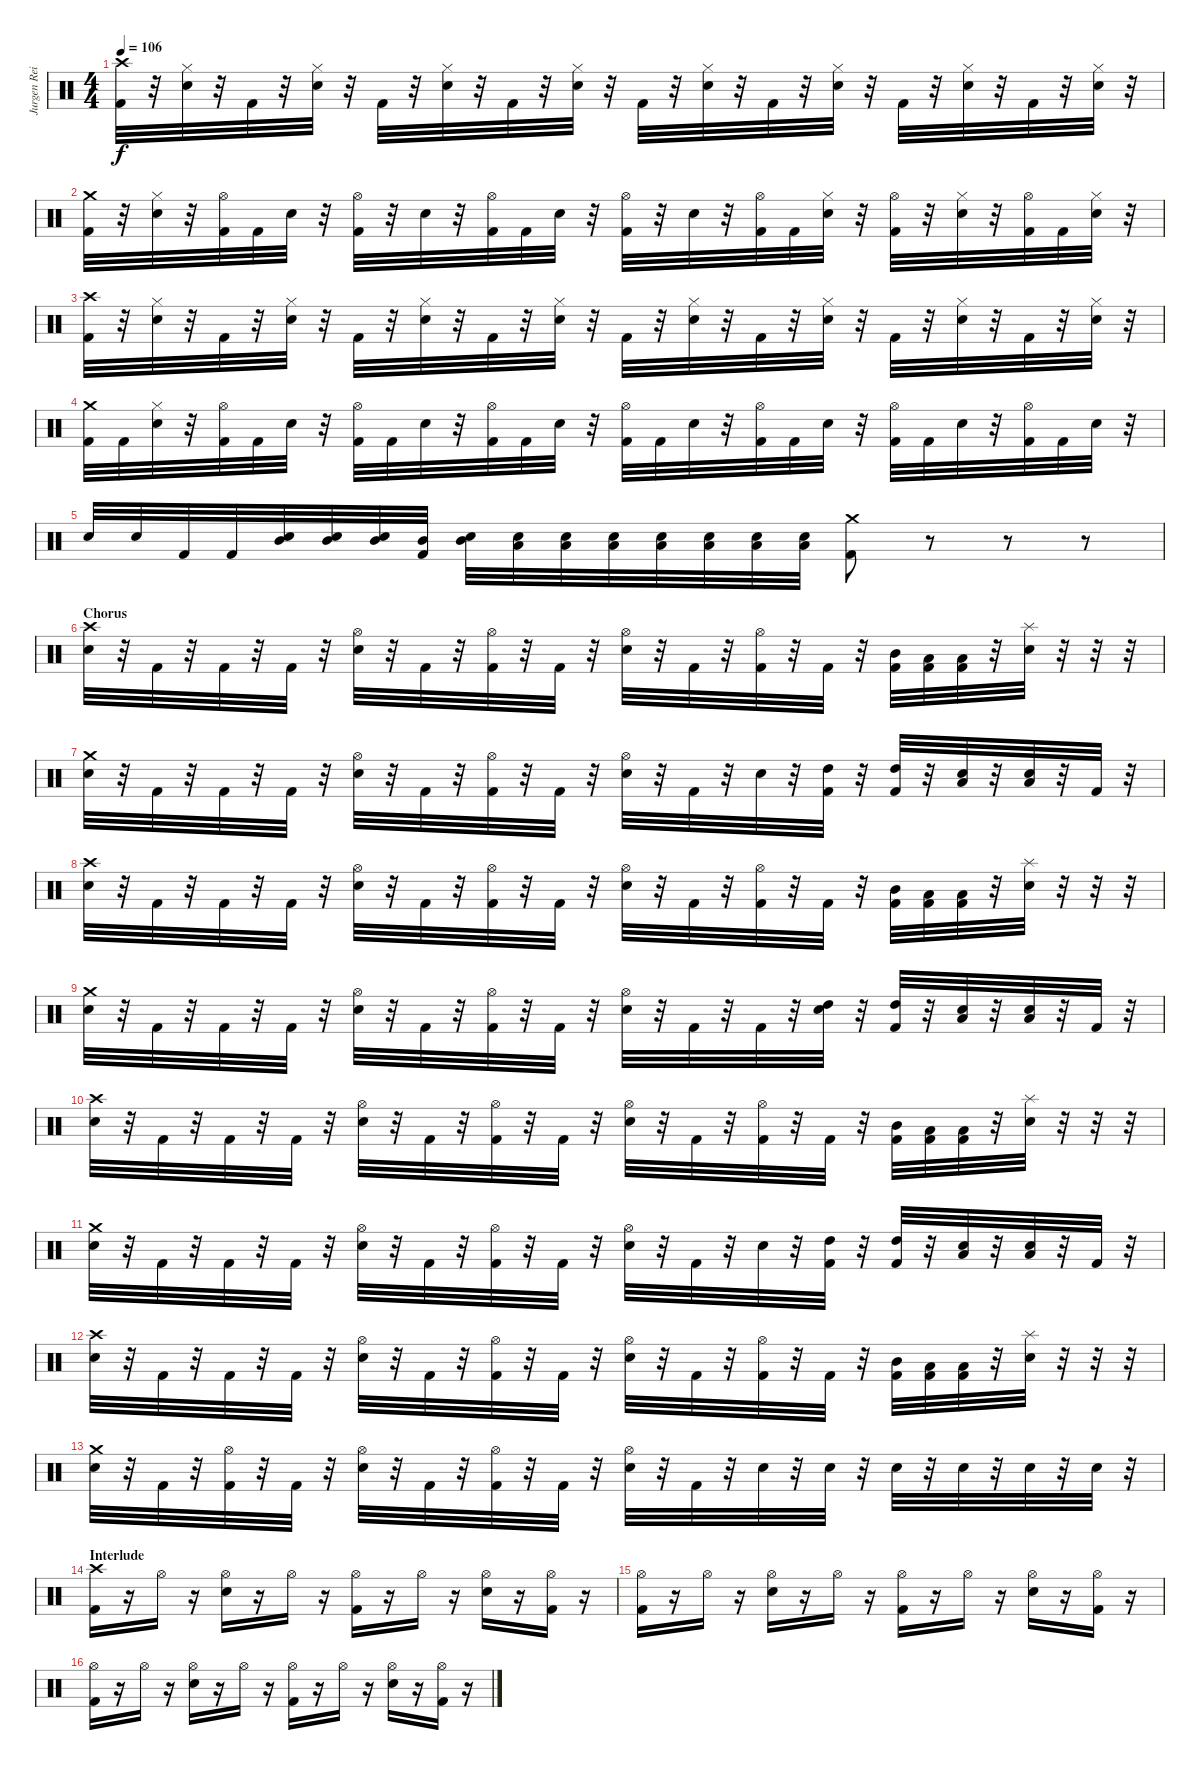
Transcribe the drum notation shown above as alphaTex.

\track ("Jurgen Reil" "Jurgen Rei") {instrument percussion}
\staff {score}
\articulation defaults
\ts (4 4)
\tempo 106
\clef neutral
\ks c
("Crash high (hit)" "Kick (hit) 2").32{dy f} r.32 ("Hi-Hat (closed)" "Snare (hit) 2").32 r.32 "Kick (hit) 2".32 r.32 ("Hi-Hat (closed)" "Snare (hit) 2").32 r.32 "Kick (hit) 2".32 r.32 ("Hi-Hat (closed)" "Snare (hit) 2").32 r.32 "Kick (hit) 2".32 r.32 ("Hi-Hat (closed)" "Snare (hit) 2").32 r.32 "Kick (hit) 2".32 r.32 ("Hi-Hat (closed)" "Snare (hit) 2").32 r.32 "Kick (hit) 2".32 r.32 ("Hi-Hat (closed)" "Snare (hit) 2").32 r.32 "Kick (hit) 2".32 r.32 ("Hi-Hat (closed)" "Snare (hit) 2").32 r.32 "Kick (hit) 2".32 r.32 ("Hi-Hat (closed)" "Snare (hit) 2").32 r.32 |
("Crash medium (hit)" "Kick (hit) 2").32 r.32 ("Hi-Hat (closed)" "Snare (hit) 2").32 r.32 ("Hi-Hat (open)" "Kick (hit) 2").32 "Kick (hit) 2".32 "Snare (hit) 2".32 r.32 ("Hi-Hat (open)" "Kick (hit) 2").32 r.32 "Snare (hit) 2".32 r.32 ("Hi-Hat (open)" "Kick (hit) 2").32 "Kick (hit) 2".32 "Snare (hit) 2".32 r.32 ("Hi-Hat (open)" "Kick (hit) 2").32 r.32 "Snare (hit) 2".32 r.32 ("Hi-Hat (open)" "Kick (hit) 2").32 "Kick (hit) 2".32 ("Hi-Hat (closed)" "Snare (hit) 2").32 r.32 ("Hi-Hat (open)" "Kick (hit) 2").32 r.32 ("Hi-Hat (closed)" "Snare (hit) 2").32 r.32 ("Hi-Hat (open)" "Kick (hit) 2").32 "Kick (hit) 2".32 ("Hi-Hat (closed)" "Snare (hit) 2").32 r.32 |
("Crash high (hit)" "Kick (hit) 2").32 r.32 ("Hi-Hat (closed)" "Snare (hit) 2").32 r.32 "Kick (hit) 2".32 r.32 ("Hi-Hat (closed)" "Snare (hit) 2").32 r.32 "Kick (hit) 2".32 r.32 ("Hi-Hat (closed)" "Snare (hit) 2").32 r.32 "Kick (hit) 2".32 r.32 ("Hi-Hat (closed)" "Snare (hit) 2").32 r.32 "Kick (hit) 2".32 r.32 ("Hi-Hat (closed)" "Snare (hit) 2").32 r.32 "Kick (hit) 2".32 r.32 ("Hi-Hat (closed)" "Snare (hit) 2").32 r.32 "Kick (hit) 2".32 r.32 ("Hi-Hat (closed)" "Snare (hit) 2").32 r.32 "Kick (hit) 2".32 r.32 ("Hi-Hat (closed)" "Snare (hit) 2").32 r.32 |
("Crash medium (hit)" "Kick (hit) 2").32 "Kick (hit) 2".32 ("Hi-Hat (closed)" "Snare (hit) 2").32 r.32 ("Hi-Hat (open)" "Kick (hit) 2").32 "Kick (hit) 2".32 "Snare (hit) 2".32 r.32 ("Hi-Hat (open)" "Kick (hit) 2").32 "Kick (hit) 2".32 "Snare (hit) 2".32 r.32 ("Hi-Hat (open)" "Kick (hit) 2").32 "Kick (hit) 2".32 "Snare (hit) 2".32 r.32 ("Hi-Hat (open)" "Kick (hit) 2").32 "Kick (hit) 2".32 "Snare (hit) 2".32 r.32 ("Hi-Hat (open)" "Kick (hit) 2").32 "Kick (hit) 2".32 "Snare (hit) 2".32 r.32 ("Hi-Hat (open)" "Kick (hit) 2").32 "Kick (hit) 2".32 "Snare (hit) 2".32 r.32 ("Hi-Hat (open)" "Kick (hit) 2").32 "Kick (hit) 2".32 "Snare (hit) 2".32 r.32 |
"Snare (hit) 2".32 "Snare (hit) 2".32 "Kick (hit) 2".32 "Kick (hit) 2".32 ("Mid Tom (hit)" "Snare (hit) 2").32 ("Mid Tom (hit)" "Snare (hit) 2").32 ("Mid Tom (hit)" "Snare (hit) 2").32 ("Mid Tom (hit)" "Kick (hit) 2").32 ("Mid Tom (hit)" "Snare (hit) 2").32 ("Low Tom (hit)" "Snare (hit) 2").32 ("Low Tom (hit)" "Snare (hit) 2").32 ("Low Tom (hit)" "Snare (hit) 2").32 ("Low Tom (hit)" "Snare (hit) 2").32 ("Low Tom (hit)" "Snare (hit) 2").32 ("Low Tom (hit)" "Snare (hit) 2").32 ("Low Tom (hit)" "Snare (hit) 2").32 ("Crash medium (hit)" "Kick (hit) 2").8 r.8 r.8 r.8 |
\section ("" "Chorus")
("Crash high (hit)" "Snare (hit) 2").32 r.32 "Kick (hit) 2".32 r.32 "Kick (hit) 2".32 r.32 "Kick (hit) 2".32 r.32 ("Hi-Hat (open)" "Snare (hit) 2").32 r.32 "Kick (hit) 2".32 r.32 ("Hi-Hat (open)" "Kick (hit) 2").32 r.32 "Kick (hit) 2".32 r.32 ("Hi-Hat (open)" "Snare (hit) 2").32 r.32 "Kick (hit) 2".32 r.32 ("Hi-Hat (open)" "Kick (hit) 2").32 r.32 "Kick (hit) 2".32 r.32 ("Mid Tom (hit)" "Kick (hit) 2").32 ("Low Tom (hit)" "Kick (hit) 2").32 ("Low Tom (hit)" "Kick (hit) 2").32 r.32 ("Splash (hit)" "Snare (hit) 2").32 r.32 r.32 r.32 |
("Crash medium (hit)" "Snare (hit) 2").32 r.32 "Kick (hit) 2".32 r.32 "Kick (hit) 2".32 r.32 "Kick (hit) 2".32 r.32 ("Hi-Hat (open)" "Snare (hit) 2").32 r.32 "Kick (hit) 2".32 r.32 ("Hi-Hat (open)" "Kick (hit) 2").32 r.32 "Kick (hit) 2".32 r.32 ("Hi-Hat (open)" "Snare (hit) 2").32 r.32 "Kick (hit) 2".32 r.32 "Snare (hit) 2".32 r.32 ("High Tom (hit)" "Kick (hit) 2").32 r.32 ("High Tom (hit)" "Kick (hit) 2").32 r.32 ("Low Tom (hit)" "Snare (hit) 2").32 r.32 ("Low Tom (hit)" "Snare (hit) 2").32 r.32 "Kick (hit) 2".32 r.32 |
("Crash high (hit)" "Snare (hit) 2").32 r.32 "Kick (hit) 2".32 r.32 "Kick (hit) 2".32 r.32 "Kick (hit) 2".32 r.32 ("Hi-Hat (open)" "Snare (hit) 2").32 r.32 "Kick (hit) 2".32 r.32 ("Hi-Hat (open)" "Kick (hit) 2").32 r.32 "Kick (hit) 2".32 r.32 ("Hi-Hat (open)" "Snare (hit) 2").32 r.32 "Kick (hit) 2".32 r.32 ("Hi-Hat (open)" "Kick (hit) 2").32 r.32 "Kick (hit) 2".32 r.32 ("Mid Tom (hit)" "Kick (hit) 2").32 ("Low Tom (hit)" "Kick (hit) 2").32 ("Low Tom (hit)" "Kick (hit) 2").32 r.32 ("Splash (hit)" "Snare (hit) 2").32 r.32 r.32 r.32 |
("Crash medium (hit)" "Snare (hit) 2").32 r.32 "Kick (hit) 2".32 r.32 "Kick (hit) 2".32 r.32 "Kick (hit) 2".32 r.32 ("Hi-Hat (open)" "Snare (hit) 2").32 r.32 "Kick (hit) 2".32 r.32 ("Hi-Hat (open)" "Kick (hit) 2").32 r.32 "Kick (hit) 2".32 r.32 ("Hi-Hat (open)" "Snare (hit) 2").32 r.32 "Kick (hit) 2".32 r.32 "Kick (hit) 2".32 r.32 ("High Tom (hit)" "Snare (hit) 2").32 r.32 ("High Tom (hit)" "Kick (hit) 2").32 r.32 ("Low Tom (hit)" "Snare (hit) 2").32 r.32 ("Low Tom (hit)" "Snare (hit) 2").32 r.32 "Kick (hit) 2".32 r.32 |
("Crash high (hit)" "Snare (hit) 2").32 r.32 "Kick (hit) 2".32 r.32 "Kick (hit) 2".32 r.32 "Kick (hit) 2".32 r.32 ("Hi-Hat (open)" "Snare (hit) 2").32 r.32 "Kick (hit) 2".32 r.32 ("Hi-Hat (open)" "Kick (hit) 2").32 r.32 "Kick (hit) 2".32 r.32 ("Hi-Hat (open)" "Snare (hit) 2").32 r.32 "Kick (hit) 2".32 r.32 ("Hi-Hat (open)" "Kick (hit) 2").32 r.32 "Kick (hit) 2".32 r.32 ("Mid Tom (hit)" "Kick (hit) 2").32 ("Low Tom (hit)" "Kick (hit) 2").32 ("Low Tom (hit)" "Kick (hit) 2").32 r.32 ("Splash (hit)" "Snare (hit) 2").32 r.32 r.32 r.32 |
("Crash medium (hit)" "Snare (hit) 2").32 r.32 "Kick (hit) 2".32 r.32 "Kick (hit) 2".32 r.32 "Kick (hit) 2".32 r.32 ("Hi-Hat (open)" "Snare (hit) 2").32 r.32 "Kick (hit) 2".32 r.32 ("Hi-Hat (open)" "Kick (hit) 2").32 r.32 "Kick (hit) 2".32 r.32 ("Hi-Hat (open)" "Snare (hit) 2").32 r.32 "Kick (hit) 2".32 r.32 "Snare (hit) 2".32 r.32 ("High Tom (hit)" "Kick (hit) 2").32 r.32 ("High Tom (hit)" "Kick (hit) 2").32 r.32 ("Low Tom (hit)" "Snare (hit) 2").32 r.32 ("Low Tom (hit)" "Snare (hit) 2").32 r.32 "Kick (hit) 2".32 r.32 |
("Crash high (hit)" "Snare (hit) 2").32 r.32 "Kick (hit) 2".32 r.32 "Kick (hit) 2".32 r.32 "Kick (hit) 2".32 r.32 ("Hi-Hat (open)" "Snare (hit) 2").32 r.32 "Kick (hit) 2".32 r.32 ("Hi-Hat (open)" "Kick (hit) 2").32 r.32 "Kick (hit) 2".32 r.32 ("Hi-Hat (open)" "Snare (hit) 2").32 r.32 "Kick (hit) 2".32 r.32 ("Hi-Hat (open)" "Kick (hit) 2").32 r.32 "Kick (hit) 2".32 r.32 ("Mid Tom (hit)" "Kick (hit) 2").32 ("Low Tom (hit)" "Kick (hit) 2").32 ("Low Tom (hit)" "Kick (hit) 2").32 r.32 ("Splash (hit)" "Snare (hit) 2").32 r.32 r.32 r.32 |
("Crash medium (hit)" "Snare (hit) 2").32 r.32 "Kick (hit) 2".32 r.32 ("Hi-Hat (open)" "Kick (hit) 2").32 r.32 "Kick (hit) 2".32 r.32 ("Hi-Hat (open)" "Snare (hit) 2").32 r.32 "Kick (hit) 2".32 r.32 ("Hi-Hat (open)" "Kick (hit) 2").32 r.32 "Kick (hit) 2".32 r.32 ("Hi-Hat (open)" "Snare (hit) 2").32 r.32 "Kick (hit) 2".32 r.32 "Snare (hit) 2".32 r.32 "Snare (hit) 2".32 r.32 "Snare (hit) 2".32 r.32 "Snare (hit) 2".32 r.32 "Snare (hit) 2".32 r.32 "Snare (hit) 2".32 r.32 |
\section ("" "Interlude")
("Crash high (hit)" "Kick (hit) 2").16 r.16 "Hi-Hat (open)".16 r.16 ("Hi-Hat (open)" "Snare (hit) 2").16 r.16 "Hi-Hat (open)".16 r.16 ("Hi-Hat (open)" "Kick (hit) 2").16 r.16 "Hi-Hat (open)".16 r.16 ("Hi-Hat (open)" "Snare (hit) 2").16 r.16 ("Hi-Hat (open)" "Kick (hit) 2").16 r.16 |
("Hi-Hat (open)" "Kick (hit) 2").16 r.16 "Hi-Hat (open)".16 r.16 ("Hi-Hat (open)" "Snare (hit) 2").16 r.16 "Hi-Hat (open)".16 r.16 ("Hi-Hat (open)" "Kick (hit) 2").16 r.16 "Hi-Hat (open)".16 r.16 ("Hi-Hat (open)" "Snare (hit) 2").16 r.16 ("Hi-Hat (open)" "Kick (hit) 2").16 r.16 |
("Hi-Hat (open)" "Kick (hit) 2").16 r.16 "Hi-Hat (open)".16 r.16 ("Hi-Hat (open)" "Snare (hit) 2").16 r.16 "Hi-Hat (open)".16 r.16 ("Hi-Hat (open)" "Kick (hit) 2").16 r.16 "Hi-Hat (open)".16 r.16 ("Hi-Hat (open)" "Snare (hit) 2").16 r.16 ("Hi-Hat (open)" "Kick (hit) 2").16 r.16
